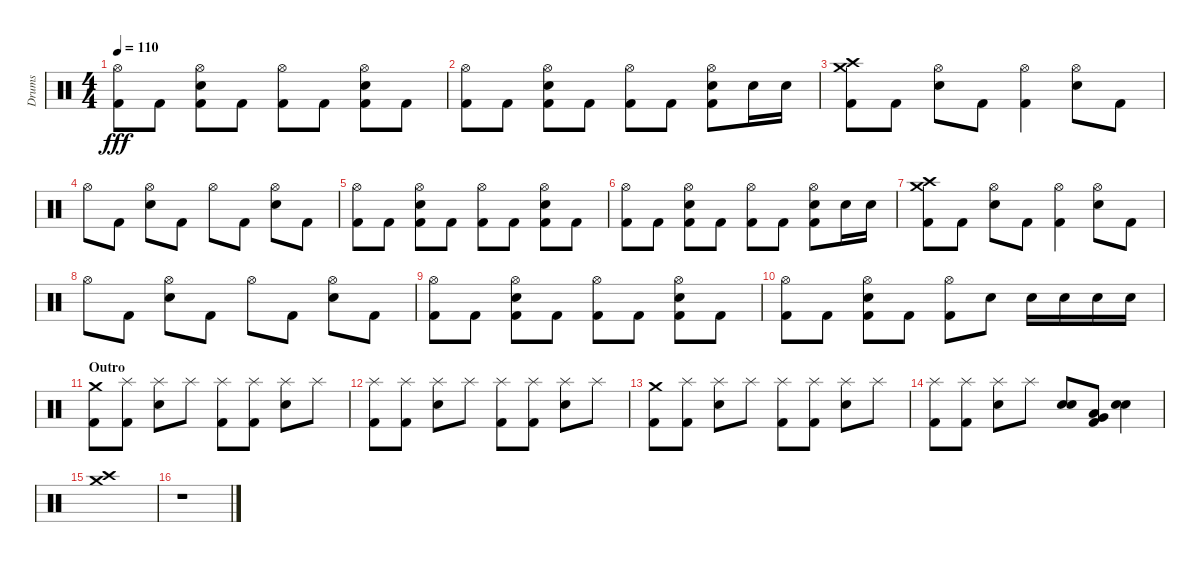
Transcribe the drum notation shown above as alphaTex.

\track ("Drums" "Drums") {instrument percussion}
\staff {score}
\articulation defaults
\ts (4 4)
\tempo 110
\clef neutral
\ks c
("Hi-Hat (open)" "Kick (hit) 2").8{dy fff} "Kick (hit) 2".8 ("Hi-Hat (open)" "Electric Snare (hit)" "Kick (hit) 2").8 "Kick (hit) 2".8 ("Hi-Hat (open)" "Kick (hit) 2").8 "Kick (hit) 2".8 ("Hi-Hat (open)" "Electric Snare (hit)" "Kick (hit) 2").8 "Kick (hit) 2".8 |
("Hi-Hat (open)" "Kick (hit) 2").8 "Kick (hit) 2".8 ("Hi-Hat (open)" "Electric Snare (hit)" "Kick (hit) 2").8 "Kick (hit) 2".8 ("Hi-Hat (open)" "Kick (hit) 2").8 "Kick (hit) 2".8 ("Hi-Hat (open)" "Electric Snare (hit)" "Kick (hit) 2").8 "Electric Snare (hit)".16 "Electric Snare (hit)".16 |
("Crash high (hit)" "Crash medium (hit)" "Kick (hit) 2").8 "Kick (hit) 2".8 ("Hi-Hat (open)" "Electric Snare (hit)").8 "Kick (hit) 2".8 ("Hi-Hat (open)" "Kick (hit) 2").4 ("Hi-Hat (open)" "Electric Snare (hit)").8 "Kick (hit) 2".8 |
"Hi-Hat (open)".8 "Kick (hit) 2".8 ("Hi-Hat (open)" "Electric Snare (hit)").8 "Kick (hit) 2".8 "Hi-Hat (open)".8 "Kick (hit) 2".8 ("Hi-Hat (open)" "Electric Snare (hit)").8 "Kick (hit) 2".8 |
("Hi-Hat (open)" "Kick (hit) 2").8 "Kick (hit) 2".8 ("Hi-Hat (open)" "Electric Snare (hit)" "Kick (hit) 2").8 "Kick (hit) 2".8 ("Hi-Hat (open)" "Kick (hit) 2").8 "Kick (hit) 2".8 ("Hi-Hat (open)" "Electric Snare (hit)" "Kick (hit) 2").8 "Kick (hit) 2".8 |
("Hi-Hat (open)" "Kick (hit) 2").8 "Kick (hit) 2".8 ("Hi-Hat (open)" "Electric Snare (hit)" "Kick (hit) 2").8 "Kick (hit) 2".8 ("Hi-Hat (open)" "Kick (hit) 2").8 "Kick (hit) 2".8 ("Hi-Hat (open)" "Electric Snare (hit)" "Kick (hit) 2").8 "Electric Snare (hit)".16 "Electric Snare (hit)".16 |
("Crash high (hit)" "Crash medium (hit)" "Kick (hit) 2").8 "Kick (hit) 2".8 ("Hi-Hat (open)" "Electric Snare (hit)").8 "Kick (hit) 2".8 ("Hi-Hat (open)" "Kick (hit) 2").4 ("Hi-Hat (open)" "Electric Snare (hit)").8 "Kick (hit) 2".8 |
"Hi-Hat (open)".8 "Kick (hit) 2".8 ("Hi-Hat (open)" "Electric Snare (hit)").8 "Kick (hit) 2".8 "Hi-Hat (open)".8 "Kick (hit) 2".8 ("Hi-Hat (open)" "Electric Snare (hit)").8 "Kick (hit) 2".8 |
("Hi-Hat (open)" "Kick (hit) 2").8 "Kick (hit) 2".8 ("Hi-Hat (open)" "Electric Snare (hit)" "Kick (hit) 2").8 "Kick (hit) 2".8 ("Hi-Hat (open)" "Kick (hit) 2").8 "Kick (hit) 2".8 ("Hi-Hat (open)" "Electric Snare (hit)" "Kick (hit) 2").8 "Kick (hit) 2".8 |
("Hi-Hat (open)" "Kick (hit) 2").8 "Kick (hit) 2".8 ("Hi-Hat (open)" "Electric Snare (hit)" "Kick (hit) 2").8 "Kick (hit) 2".8 ("Hi-Hat (open)" "Kick (hit) 2").8 "Electric Snare (hit)".8 "Electric Snare (hit)".16 "Electric Snare (hit)".16 "Electric Snare (hit)".16 "Electric Snare (hit)".16 |
\section ("" "Outro")
("Crash medium (hit)" "Kick (hit) 2").8 ("Splash (hit)" "Kick (hit) 2").8 ("Splash (hit)" "Electric Snare (hit)").8 "Splash (hit)".8 ("Splash (hit)" "Kick (hit) 2").8 ("Splash (hit)" "Kick (hit) 2").8 ("Splash (hit)" "Electric Snare (hit)").8 "Splash (hit)".8 |
("Splash (hit)" "Kick (hit) 2").8 ("Splash (hit)" "Kick (hit) 2").8 ("Splash (hit)" "Electric Snare (hit)").8 "Splash (hit)".8 ("Splash (hit)" "Kick (hit) 2").8 ("Splash (hit)" "Kick (hit) 2").8 ("Splash (hit)" "Electric Snare (hit)").8 "Splash (hit)".8 |
("Crash medium (hit)" "Kick (hit) 2").8 ("Splash (hit)" "Kick (hit) 2").8 ("Splash (hit)" "Electric Snare (hit)").8 "Splash (hit)".8 ("Splash (hit)" "Kick (hit) 2").8 ("Splash (hit)" "Kick (hit) 2").8 ("Splash (hit)" "Electric Snare (hit)").8 "Splash (hit)".8 |
("Splash (hit)" "Kick (hit) 2").8 ("Splash (hit)" "Kick (hit) 2").8 ("Splash (hit)" "Electric Snare (hit)").8 "Splash (hit)".8 ("Electric Snare (hit)" "Electric Snare (hit)").8 ("Low Tom (hit)" "Very Low Tom (hit)" "Kick (hit) 2").8 ("Electric Snare (hit)" "Electric Snare (hit)").4 |
("Crash high (hit)" "Crash medium (hit)").1 |
r.1
